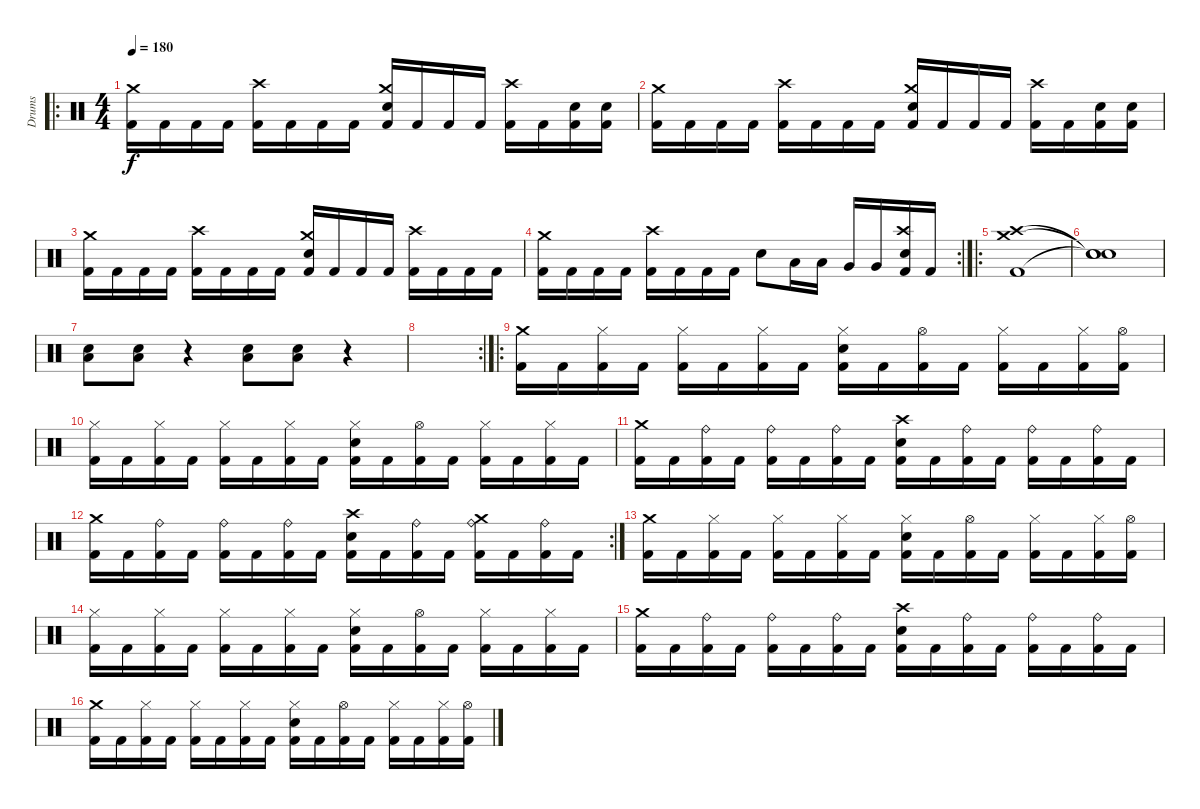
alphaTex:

\track ("Drums" "Drums") {instrument percussion}
\staff {score}
\articulation defaults
\ro
\ts (4 4)
\tempo 180
\clef neutral
\ks c
("Kick (hit) 2" "Crash medium (hit)").16{dy f} "Kick (hit) 2".16 "Kick (hit) 2".16 "Kick (hit) 2".16 ("Kick (hit) 2" "Crash high (hit)").16 "Kick (hit) 2".16 "Kick (hit) 2".16 "Kick (hit) 2".16 ("Kick (hit) 2" "Electric Snare (hit)" "Crash medium (hit)").16 "Kick (hit) 2".16 "Kick (hit) 2".16 "Kick (hit) 2".16 ("Kick (hit) 2" "Crash high (hit)").16 "Kick (hit) 2".16 ("Kick (hit) 2" "Electric Snare (hit)").16 ("Kick (hit) 2" "Electric Snare (hit)").16 |
("Kick (hit) 2" "Crash medium (hit)").16 "Kick (hit) 2".16 "Kick (hit) 2".16 "Kick (hit) 2".16 ("Kick (hit) 2" "Crash high (hit)").16 "Kick (hit) 2".16 "Kick (hit) 2".16 "Kick (hit) 2".16 ("Kick (hit) 2" "Electric Snare (hit)" "Crash medium (hit)").16 "Kick (hit) 2".16 "Kick (hit) 2".16 "Kick (hit) 2".16 ("Kick (hit) 2" "Crash high (hit)").16 "Kick (hit) 2".16 ("Kick (hit) 2" "Electric Snare (hit)").16 ("Kick (hit) 2" "Electric Snare (hit)").16 |
("Kick (hit) 2" "Crash medium (hit)").16 "Kick (hit) 2".16 "Kick (hit) 2".16 "Kick (hit) 2".16 ("Kick (hit) 2" "Crash high (hit)").16 "Kick (hit) 2".16 "Kick (hit) 2".16 "Kick (hit) 2".16 ("Kick (hit) 2" "Electric Snare (hit)" "Crash medium (hit)").16 "Kick (hit) 2".16 "Kick (hit) 2".16 "Kick (hit) 2".16 ("Kick (hit) 2" "Crash high (hit)").16 "Kick (hit) 2".16 "Kick (hit) 2".16 "Kick (hit) 2".16 |
\rc 2
("Kick (hit) 2" "Crash medium (hit)").16 "Kick (hit) 2".16 "Kick (hit) 2".16 "Kick (hit) 2".16 ("Kick (hit) 2" "Crash high (hit)").16 "Kick (hit) 2".16 "Kick (hit) 2".16 "Kick (hit) 2".16 "Electric Snare (hit)".8 "Low Floor Tom (hit)".16 "Low Floor Tom (hit)".16 "Very Low Tom (hit)".16 "Very Low Tom (hit)".16 ("Kick (hit) 2" "Electric Snare (hit)" "Crash high (hit)").16 "Kick (hit) 2".16 |
\ro
("Kick (hit) 2" "Crash high (hit)" "Crash medium (hit)").1 |
("Snare (hit)"{t} "Snare (hit)"{t} "Snare (hit)"{t}).1 |
("Electric Snare (hit)" "Low Tom (hit)").8 ("Electric Snare (hit)" "Low Tom (hit)").8 r.4 ("Electric Snare (hit)" "Low Tom (hit)").8 ("Electric Snare (hit)" "Low Tom (hit)").8 r.4 |
\rc 2
|
\ro
("Kick (hit) 2" "Crash medium (hit)").16 "Kick (hit) 2".16 ("Kick (hit) 2" "Hi-Hat (closed)").16 "Kick (hit) 2".16 ("Kick (hit) 2" "Hi-Hat (closed)").16 "Kick (hit) 2".16 ("Kick (hit) 2" "Hi-Hat (closed)").16 "Kick (hit) 2".16 ("Kick (hit) 2" "Electric Snare (hit)" "Hi-Hat (closed)").16 "Kick (hit) 2".16 ("Kick (hit) 2" "Hi-Hat (open)").16 "Kick (hit) 2".16 ("Kick (hit) 2" "Hi-Hat (closed)").16 "Kick (hit) 2".16 ("Kick (hit) 2" "Hi-Hat (closed)").16 ("Kick (hit) 2" "Hi-Hat (open)").16 |
("Kick (hit) 2" "Hi-Hat (closed)").16 "Kick (hit) 2".16 ("Kick (hit) 2" "Hi-Hat (closed)").16 "Kick (hit) 2".16 ("Kick (hit) 2" "Hi-Hat (closed)").16 "Kick (hit) 2".16 ("Kick (hit) 2" "Hi-Hat (closed)").16 "Kick (hit) 2".16 ("Kick (hit) 2" "Electric Snare (hit)" "Hi-Hat (closed)").16 "Kick (hit) 2".16 ("Kick (hit) 2" "Hi-Hat (open)").16 "Kick (hit) 2".16 ("Kick (hit) 2" "Hi-Hat (closed)").16 "Kick (hit) 2".16 ("Kick (hit) 2" "Hi-Hat (closed)").16 "Kick (hit) 2".16 |
("Kick (hit) 2" "Crash medium (hit)").16 "Kick (hit) 2".16 ("Kick (hit) 2" "Ride (bell)").16 "Kick (hit) 2".16 ("Kick (hit) 2" "Ride (bell)").16 "Kick (hit) 2".16 ("Kick (hit) 2" "Ride (bell)").16 "Kick (hit) 2".16 ("Kick (hit) 2" "Electric Snare (hit)" "Crash high (hit)").16 "Kick (hit) 2".16 ("Kick (hit) 2" "Ride (bell)").16 "Kick (hit) 2".16 ("Kick (hit) 2" "Ride (bell)").16 "Kick (hit) 2".16 ("Kick (hit) 2" "Ride (bell)").16 "Kick (hit) 2".16 |
\rc 2
("Kick (hit) 2" "Crash medium (hit)").16 "Kick (hit) 2".16 ("Kick (hit) 2" "Ride (bell)").16 "Kick (hit) 2".16 ("Kick (hit) 2" "Ride (bell)").16 "Kick (hit) 2".16 ("Kick (hit) 2" "Ride (bell)").16 "Kick (hit) 2".16 ("Kick (hit) 2" "Electric Snare (hit)" "Crash high (hit)").16 "Kick (hit) 2".16 ("Kick (hit) 2" "Ride (bell)").16 "Kick (hit) 2".16 ("Kick (hit) 2" "Ride (bell)" "Crash medium (hit)").16 "Kick (hit) 2".16 ("Kick (hit) 2" "Ride (bell)").16 "Kick (hit) 2".16 |
("Kick (hit) 2" "Crash medium (hit)").16 "Kick (hit) 2".16 ("Kick (hit) 2" "Hi-Hat (closed)").16 "Kick (hit) 2".16 ("Kick (hit) 2" "Hi-Hat (closed)").16 "Kick (hit) 2".16 ("Kick (hit) 2" "Hi-Hat (closed)").16 "Kick (hit) 2".16 ("Kick (hit) 2" "Electric Snare (hit)" "Hi-Hat (closed)").16 "Kick (hit) 2".16 ("Kick (hit) 2" "Hi-Hat (open)").16 "Kick (hit) 2".16 ("Kick (hit) 2" "Hi-Hat (closed)").16 "Kick (hit) 2".16 ("Kick (hit) 2" "Hi-Hat (closed)").16 ("Kick (hit) 2" "Hi-Hat (open)").16 |
("Kick (hit) 2" "Hi-Hat (closed)").16 "Kick (hit) 2".16 ("Kick (hit) 2" "Hi-Hat (closed)").16 "Kick (hit) 2".16 ("Kick (hit) 2" "Hi-Hat (closed)").16 "Kick (hit) 2".16 ("Kick (hit) 2" "Hi-Hat (closed)").16 "Kick (hit) 2".16 ("Kick (hit) 2" "Electric Snare (hit)" "Hi-Hat (closed)").16 "Kick (hit) 2".16 ("Kick (hit) 2" "Hi-Hat (open)").16 "Kick (hit) 2".16 ("Kick (hit) 2" "Hi-Hat (closed)").16 "Kick (hit) 2".16 ("Kick (hit) 2" "Hi-Hat (closed)").16 "Kick (hit) 2".16 |
("Kick (hit) 2" "Crash medium (hit)").16 "Kick (hit) 2".16 ("Kick (hit) 2" "Ride (bell)").16 "Kick (hit) 2".16 ("Kick (hit) 2" "Ride (bell)").16 "Kick (hit) 2".16 ("Kick (hit) 2" "Ride (bell)").16 "Kick (hit) 2".16 ("Kick (hit) 2" "Electric Snare (hit)" "Crash high (hit)").16 "Kick (hit) 2".16 ("Kick (hit) 2" "Ride (bell)").16 "Kick (hit) 2".16 ("Kick (hit) 2" "Ride (bell)").16 "Kick (hit) 2".16 ("Kick (hit) 2" "Ride (bell)").16 "Kick (hit) 2".16 |
("Kick (hit) 2" "Crash medium (hit)").16 "Kick (hit) 2".16 ("Kick (hit) 2" "Hi-Hat (closed)").16 "Kick (hit) 2".16 ("Kick (hit) 2" "Hi-Hat (closed)").16 "Kick (hit) 2".16 ("Kick (hit) 2" "Hi-Hat (closed)").16 "Kick (hit) 2".16 ("Kick (hit) 2" "Electric Snare (hit)" "Hi-Hat (closed)").16 "Kick (hit) 2".16 ("Kick (hit) 2" "Hi-Hat (open)").16 "Kick (hit) 2".16 ("Kick (hit) 2" "Hi-Hat (closed)").16 "Kick (hit) 2".16 ("Kick (hit) 2" "Hi-Hat (closed)").16 ("Kick (hit) 2" "Hi-Hat (open)").16
